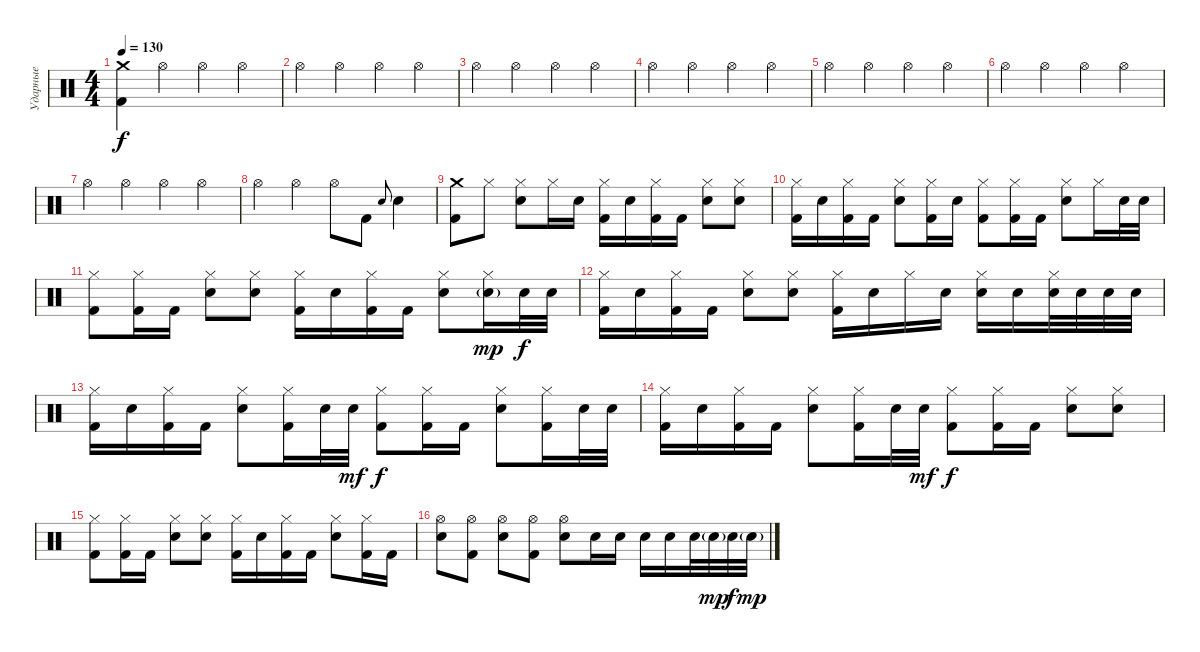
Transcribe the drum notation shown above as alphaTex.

\track ("Ударные" "Ударные") {instrument percussion}
\staff {score}
\articulation defaults
\ts (4 4)
\tempo 130
\clef neutral
\ks c
("Kick (hit) 2" "Crash medium (hit)").4{dy f} "Hi-Hat (open)".4 "Hi-Hat (open)".4 "Hi-Hat (open)".4 |
"Hi-Hat (open)".4 "Hi-Hat (open)".4 "Hi-Hat (open)".4 "Hi-Hat (open)".4 |
"Hi-Hat (open)".4 "Hi-Hat (open)".4 "Hi-Hat (open)".4 "Hi-Hat (open)".4 |
"Hi-Hat (open)".4 "Hi-Hat (open)".4 "Hi-Hat (open)".4 "Hi-Hat (open)".4 |
"Hi-Hat (open)".4 "Hi-Hat (open)".4 "Hi-Hat (open)".4 "Hi-Hat (open)".4 |
"Hi-Hat (open)".4 "Hi-Hat (open)".4 "Hi-Hat (open)".4 "Hi-Hat (open)".4 |
"Hi-Hat (open)".4 "Hi-Hat (open)".4 "Hi-Hat (open)".4 "Hi-Hat (open)".4 |
"Hi-Hat (open)".4 "Hi-Hat (open)".4 "Hi-Hat (open)".8 "Kick (hit) 2".8 "Electric Snare (hit)".8{gr onbeat} "Electric Snare (hit)".4 |
("Kick (hit) 2" "Crash medium (hit)").8 "Hi-Hat (closed)".8 ("Electric Snare (hit)" "Hi-Hat (closed)").8 "Hi-Hat (closed)".16 "Electric Snare (hit)".16 ("Kick (hit) 2" "Hi-Hat (closed)").16 "Electric Snare (hit)".16 ("Kick (hit) 2" "Hi-Hat (closed)").16 "Kick (hit) 2".16 ("Electric Snare (hit)" "Hi-Hat (closed)").8 ("Electric Snare (hit)" "Hi-Hat (closed)").8 |
("Kick (hit) 2" "Hi-Hat (closed)").16 "Electric Snare (hit)".16 ("Kick (hit) 2" "Hi-Hat (closed)").16 "Kick (hit) 2".16 ("Electric Snare (hit)" "Hi-Hat (closed)").8 ("Kick (hit) 2" "Hi-Hat (closed)").16 "Electric Snare (hit)".16 ("Kick (hit) 2" "Hi-Hat (closed)").8 ("Kick (hit) 2" "Hi-Hat (closed)").16 "Kick (hit) 2".16 ("Electric Snare (hit)" "Hi-Hat (closed)").8 "Hi-Hat (closed)".16 "Electric Snare (hit)".32 "Electric Snare (hit)".32 |
("Kick (hit) 2" "Hi-Hat (closed)").8 ("Kick (hit) 2" "Hi-Hat (closed)").16 "Kick (hit) 2".16 ("Electric Snare (hit)" "Hi-Hat (closed)").8 ("Electric Snare (hit)" "Hi-Hat (closed)").8 ("Kick (hit) 2" "Hi-Hat (closed)").16 "Electric Snare (hit)".16 ("Kick (hit) 2" "Hi-Hat (closed)").16 "Kick (hit) 2".16 ("Electric Snare (hit)" "Hi-Hat (closed)").8 ("Electric Snare (hit)"{g} "Hi-Hat (closed)").16{dy mp} "Electric Snare (hit)".32{dy f} "Electric Snare (hit)".32 |
("Kick (hit) 2" "Hi-Hat (closed)").16 "Electric Snare (hit)".16 ("Kick (hit) 2" "Hi-Hat (closed)").16 "Kick (hit) 2".16 ("Electric Snare (hit)" "Hi-Hat (closed)").8 ("Electric Snare (hit)" "Hi-Hat (closed)").8 ("Kick (hit) 2" "Hi-Hat (closed)").16 "Electric Snare (hit)".16 "Hi-Hat (closed)".16 "Electric Snare (hit)".16 ("Electric Snare (hit)" "Hi-Hat (closed)").16 "Electric Snare (hit)".16 ("Electric Snare (hit)" "Hi-Hat (closed)").32 "Electric Snare (hit)".32 "Electric Snare (hit)".32 "Electric Snare (hit)".32 |
("Kick (hit) 2" "Hi-Hat (closed)").16 "Electric Snare (hit)".16 ("Kick (hit) 2" "Hi-Hat (closed)").16 "Kick (hit) 2".16 ("Electric Snare (hit)" "Hi-Hat (closed)").8 ("Kick (hit) 2" "Hi-Hat (closed)").16 "Electric Snare (hit)".32 "Electric Snare (hit)".32{dy mf} ("Kick (hit) 2" "Hi-Hat (closed)").8{dy f} ("Kick (hit) 2" "Hi-Hat (closed)").16 "Kick (hit) 2".16 ("Electric Snare (hit)" "Hi-Hat (closed)").8 ("Kick (hit) 2" "Hi-Hat (closed)").16 "Electric Snare (hit)".32 "Electric Snare (hit)".32 |
("Kick (hit) 2" "Hi-Hat (closed)").16 "Electric Snare (hit)".16 ("Kick (hit) 2" "Hi-Hat (closed)").16 "Kick (hit) 2".16 ("Electric Snare (hit)" "Hi-Hat (closed)").8 ("Kick (hit) 2" "Hi-Hat (closed)").16 "Electric Snare (hit)".32 "Electric Snare (hit)".32{dy mf} ("Kick (hit) 2" "Hi-Hat (closed)").8{dy f} ("Kick (hit) 2" "Hi-Hat (closed)").16 "Kick (hit) 2".16 ("Electric Snare (hit)" "Hi-Hat (closed)").8 ("Electric Snare (hit)" "Hi-Hat (closed)").8 |
("Kick (hit) 2" "Hi-Hat (closed)").8 ("Kick (hit) 2" "Hi-Hat (closed)").16 "Kick (hit) 2".16 ("Electric Snare (hit)" "Hi-Hat (closed)").8 ("Electric Snare (hit)" "Hi-Hat (closed)").8 ("Kick (hit) 2" "Hi-Hat (closed)").16 "Electric Snare (hit)".16 ("Kick (hit) 2" "Hi-Hat (closed)").16 "Kick (hit) 2".16 ("Electric Snare (hit)" "Hi-Hat (closed)").8 ("Kick (hit) 2" "Hi-Hat (closed)").16 "Kick (hit) 2".16 |
("Electric Snare (hit)" "Hi-Hat (open)").8 ("Kick (hit) 2" "Hi-Hat (open)").8 ("Electric Snare (hit)" "Hi-Hat (open)").8 ("Kick (hit) 2" "Hi-Hat (open)").8 ("Electric Snare (hit)" "Hi-Hat (open)").8 "Electric Snare (hit)".16 "Electric Snare (hit)".16 "Electric Snare (hit)".16 "Electric Snare (hit)".16 "Electric Snare (hit)".32 "Electric Snare (hit)"{g}.32{dy mp} "Electric Snare (hit)".32{dy f} "Electric Snare (hit)"{g}.32{dy mp}
